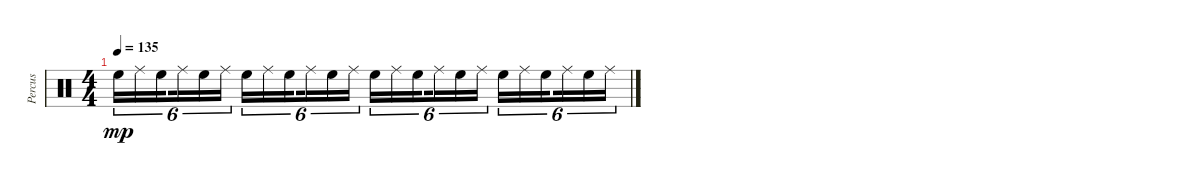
\track ("Percus" "Percus") {instrument percussion}
\staff {score}
\articulation defaults
\ts (4 4)
\tempo 135
\clef neutral
\ks c "High Floor Tom (hit)".16{tu (6 4) dy mp} "Ride (middle)".16{tu (6 4)} "High Floor Tom (hit)".16{tu (6 4) beam splitsecondary} "Ride (middle)".16{tu (6 4)} "High Floor Tom (hit)".16{tu (6 4)} "Ride (middle)".16{tu (6 4)} "High Floor Tom (hit)".16{tu (6 4)} "Ride (middle)".16{tu (6 4)} "High Floor Tom (hit)".16{tu (6 4) beam splitsecondary} "Ride (middle)".16{tu (6 4)} "High Floor Tom (hit)".16{tu (6 4)} "Ride (middle)".16{tu (6 4)} "High Floor Tom (hit)".16{tu (6 4)} "Ride (middle)".16{tu (6 4)} "High Floor Tom (hit)".16{tu (6 4) beam splitsecondary} "Ride (middle)".16{tu (6 4)} "High Floor Tom (hit)".16{tu (6 4)} "Ride (middle)".16{tu (6 4)} "High Floor Tom (hit)".16{tu (6 4)} "Ride (middle)".16{tu (6 4)} "High Floor Tom (hit)".16{tu (6 4) beam splitsecondary} "Ride (middle)".16{tu (6 4)} "High Floor Tom (hit)".16{tu (6 4)} "Ride (middle)".16{tu (6 4)}
